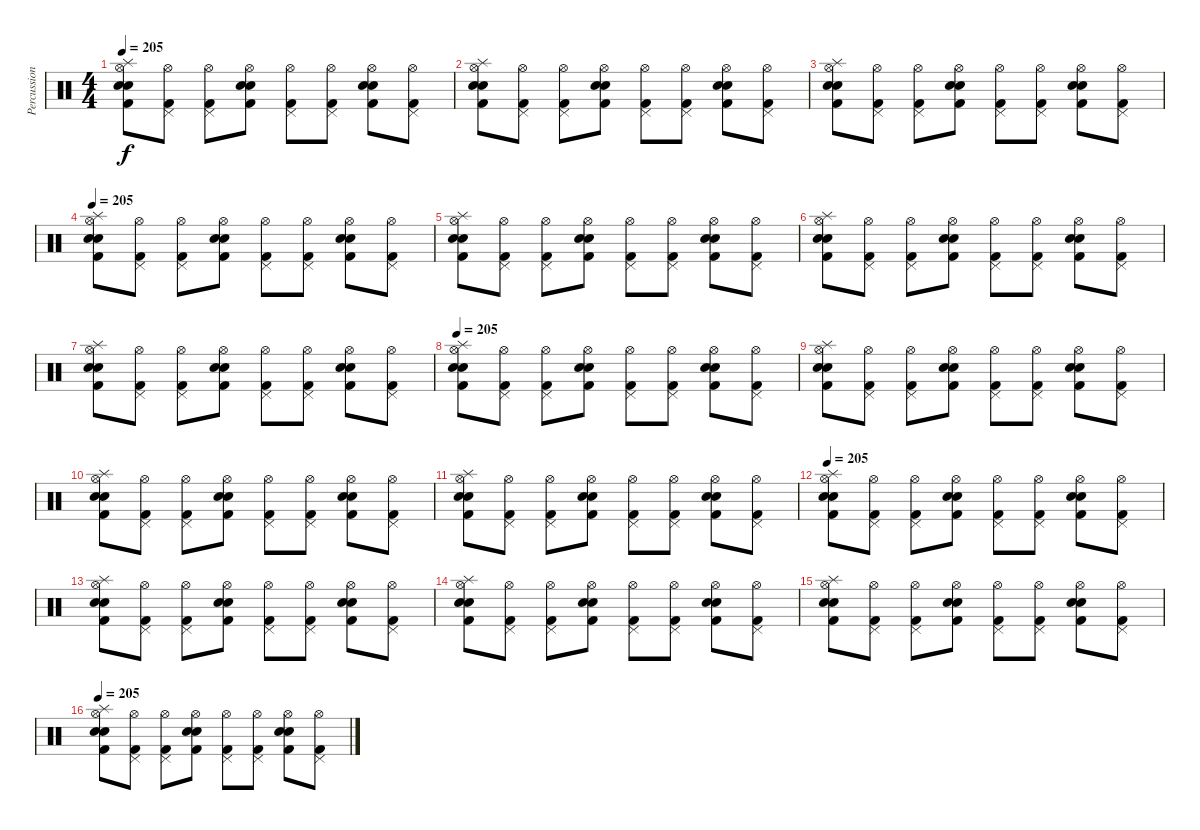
\track ("Percussions" "Percussion") {instrument percussion}
\staff {score}
\articulation defaults
\ts (4 4)
\tempo 205
\clef neutral
\ks c
("Splash (hit)" "Hi-Hat (open)" "Kick (hit) 2" "Snare (hit) 2" "Electric Snare (hit)").8{dy f} ("Hi-Hat (open)" "Pedal Hi-Hat (hit)" "Kick (hit) 2").8 ("Hi-Hat (open)" "Pedal Hi-Hat (hit)" "Kick (hit) 2").8 ("Hi-Hat (open)" "Kick (hit) 2" "Snare (hit) 2" "Electric Snare (hit)").8 ("Hi-Hat (open)" "Pedal Hi-Hat (hit)" "Kick (hit) 2").8 ("Hi-Hat (open)" "Pedal Hi-Hat (hit)" "Kick (hit) 2").8 ("Hi-Hat (open)" "Kick (hit) 2" "Snare (hit) 2" "Electric Snare (hit)").8 ("Hi-Hat (open)" "Pedal Hi-Hat (hit)" "Kick (hit) 2").8 |
("Splash (hit)" "Hi-Hat (open)" "Kick (hit) 2" "Snare (hit) 2" "Electric Snare (hit)").8 ("Hi-Hat (open)" "Pedal Hi-Hat (hit)" "Kick (hit) 2").8 ("Hi-Hat (open)" "Pedal Hi-Hat (hit)" "Kick (hit) 2").8 ("Hi-Hat (open)" "Kick (hit) 2" "Snare (hit) 2" "Electric Snare (hit)").8 ("Hi-Hat (open)" "Pedal Hi-Hat (hit)" "Kick (hit) 2").8 ("Hi-Hat (open)" "Pedal Hi-Hat (hit)" "Kick (hit) 2").8 ("Hi-Hat (open)" "Kick (hit) 2" "Snare (hit) 2" "Electric Snare (hit)").8 ("Hi-Hat (open)" "Pedal Hi-Hat (hit)" "Kick (hit) 2").8 |
("Splash (hit)" "Hi-Hat (open)" "Kick (hit) 2" "Snare (hit) 2" "Electric Snare (hit)").8 ("Hi-Hat (open)" "Pedal Hi-Hat (hit)" "Kick (hit) 2").8 ("Hi-Hat (open)" "Pedal Hi-Hat (hit)" "Kick (hit) 2").8 ("Hi-Hat (open)" "Kick (hit) 2" "Snare (hit) 2" "Electric Snare (hit)").8 ("Hi-Hat (open)" "Pedal Hi-Hat (hit)" "Kick (hit) 2").8 ("Hi-Hat (open)" "Pedal Hi-Hat (hit)" "Kick (hit) 2").8 ("Hi-Hat (open)" "Kick (hit) 2" "Snare (hit) 2" "Electric Snare (hit)").8 ("Hi-Hat (open)" "Pedal Hi-Hat (hit)" "Kick (hit) 2").8 |
\tempo 205
("Splash (hit)" "Hi-Hat (open)" "Kick (hit) 2" "Snare (hit) 2" "Electric Snare (hit)").8 ("Hi-Hat (open)" "Pedal Hi-Hat (hit)" "Kick (hit) 2").8 ("Hi-Hat (open)" "Pedal Hi-Hat (hit)" "Kick (hit) 2").8 ("Hi-Hat (open)" "Kick (hit) 2" "Snare (hit) 2" "Electric Snare (hit)").8 ("Hi-Hat (open)" "Pedal Hi-Hat (hit)" "Kick (hit) 2").8 ("Hi-Hat (open)" "Pedal Hi-Hat (hit)" "Kick (hit) 2").8 ("Hi-Hat (open)" "Kick (hit) 2" "Snare (hit) 2" "Electric Snare (hit)").8 ("Hi-Hat (open)" "Pedal Hi-Hat (hit)" "Kick (hit) 2").8 |
("Splash (hit)" "Hi-Hat (open)" "Kick (hit) 2" "Snare (hit) 2" "Electric Snare (hit)").8 ("Hi-Hat (open)" "Pedal Hi-Hat (hit)" "Kick (hit) 2").8 ("Hi-Hat (open)" "Pedal Hi-Hat (hit)" "Kick (hit) 2").8 ("Hi-Hat (open)" "Kick (hit) 2" "Snare (hit) 2" "Electric Snare (hit)").8 ("Hi-Hat (open)" "Pedal Hi-Hat (hit)" "Kick (hit) 2").8 ("Hi-Hat (open)" "Pedal Hi-Hat (hit)" "Kick (hit) 2").8 ("Hi-Hat (open)" "Kick (hit) 2" "Snare (hit) 2" "Electric Snare (hit)").8 ("Hi-Hat (open)" "Pedal Hi-Hat (hit)" "Kick (hit) 2").8 |
("Splash (hit)" "Hi-Hat (open)" "Kick (hit) 2" "Snare (hit) 2" "Electric Snare (hit)").8 ("Hi-Hat (open)" "Pedal Hi-Hat (hit)" "Kick (hit) 2").8 ("Hi-Hat (open)" "Pedal Hi-Hat (hit)" "Kick (hit) 2").8 ("Hi-Hat (open)" "Kick (hit) 2" "Snare (hit) 2" "Electric Snare (hit)").8 ("Hi-Hat (open)" "Pedal Hi-Hat (hit)" "Kick (hit) 2").8 ("Hi-Hat (open)" "Pedal Hi-Hat (hit)" "Kick (hit) 2").8 ("Hi-Hat (open)" "Kick (hit) 2" "Snare (hit) 2" "Electric Snare (hit)").8 ("Hi-Hat (open)" "Pedal Hi-Hat (hit)" "Kick (hit) 2").8 |
("Splash (hit)" "Hi-Hat (open)" "Kick (hit) 2" "Snare (hit) 2" "Electric Snare (hit)").8 ("Hi-Hat (open)" "Pedal Hi-Hat (hit)" "Kick (hit) 2").8 ("Hi-Hat (open)" "Pedal Hi-Hat (hit)" "Kick (hit) 2").8 ("Hi-Hat (open)" "Kick (hit) 2" "Snare (hit) 2" "Electric Snare (hit)").8 ("Hi-Hat (open)" "Pedal Hi-Hat (hit)" "Kick (hit) 2").8 ("Hi-Hat (open)" "Pedal Hi-Hat (hit)" "Kick (hit) 2").8 ("Hi-Hat (open)" "Kick (hit) 2" "Snare (hit) 2" "Electric Snare (hit)").8 ("Hi-Hat (open)" "Pedal Hi-Hat (hit)" "Kick (hit) 2").8 |
\tempo 205
("Splash (hit)" "Hi-Hat (open)" "Kick (hit) 2" "Snare (hit) 2" "Electric Snare (hit)").8 ("Hi-Hat (open)" "Pedal Hi-Hat (hit)" "Kick (hit) 2").8 ("Hi-Hat (open)" "Pedal Hi-Hat (hit)" "Kick (hit) 2").8 ("Hi-Hat (open)" "Kick (hit) 2" "Snare (hit) 2" "Electric Snare (hit)").8 ("Hi-Hat (open)" "Pedal Hi-Hat (hit)" "Kick (hit) 2").8 ("Hi-Hat (open)" "Pedal Hi-Hat (hit)" "Kick (hit) 2").8 ("Hi-Hat (open)" "Kick (hit) 2" "Snare (hit) 2" "Electric Snare (hit)").8 ("Hi-Hat (open)" "Pedal Hi-Hat (hit)" "Kick (hit) 2").8 |
("Splash (hit)" "Hi-Hat (open)" "Kick (hit) 2" "Snare (hit) 2" "Electric Snare (hit)").8 ("Hi-Hat (open)" "Pedal Hi-Hat (hit)" "Kick (hit) 2").8 ("Hi-Hat (open)" "Pedal Hi-Hat (hit)" "Kick (hit) 2").8 ("Hi-Hat (open)" "Kick (hit) 2" "Snare (hit) 2" "Electric Snare (hit)").8 ("Hi-Hat (open)" "Pedal Hi-Hat (hit)" "Kick (hit) 2").8 ("Hi-Hat (open)" "Pedal Hi-Hat (hit)" "Kick (hit) 2").8 ("Hi-Hat (open)" "Kick (hit) 2" "Snare (hit) 2" "Electric Snare (hit)").8 ("Hi-Hat (open)" "Pedal Hi-Hat (hit)" "Kick (hit) 2").8 |
("Splash (hit)" "Hi-Hat (open)" "Kick (hit) 2" "Snare (hit) 2" "Electric Snare (hit)").8 ("Hi-Hat (open)" "Pedal Hi-Hat (hit)" "Kick (hit) 2").8 ("Hi-Hat (open)" "Pedal Hi-Hat (hit)" "Kick (hit) 2").8 ("Hi-Hat (open)" "Kick (hit) 2" "Snare (hit) 2" "Electric Snare (hit)").8 ("Hi-Hat (open)" "Pedal Hi-Hat (hit)" "Kick (hit) 2").8 ("Hi-Hat (open)" "Pedal Hi-Hat (hit)" "Kick (hit) 2").8 ("Hi-Hat (open)" "Kick (hit) 2" "Snare (hit) 2" "Electric Snare (hit)").8 ("Hi-Hat (open)" "Pedal Hi-Hat (hit)" "Kick (hit) 2").8 |
("Splash (hit)" "Hi-Hat (open)" "Kick (hit) 2" "Snare (hit) 2" "Electric Snare (hit)").8 ("Hi-Hat (open)" "Pedal Hi-Hat (hit)" "Kick (hit) 2").8 ("Hi-Hat (open)" "Pedal Hi-Hat (hit)" "Kick (hit) 2").8 ("Hi-Hat (open)" "Kick (hit) 2" "Snare (hit) 2" "Electric Snare (hit)").8 ("Hi-Hat (open)" "Pedal Hi-Hat (hit)" "Kick (hit) 2").8 ("Hi-Hat (open)" "Pedal Hi-Hat (hit)" "Kick (hit) 2").8 ("Hi-Hat (open)" "Kick (hit) 2" "Snare (hit) 2" "Electric Snare (hit)").8 ("Hi-Hat (open)" "Pedal Hi-Hat (hit)" "Kick (hit) 2").8 |
\tempo 205
("Splash (hit)" "Hi-Hat (open)" "Kick (hit) 2" "Snare (hit) 2" "Electric Snare (hit)").8 ("Hi-Hat (open)" "Pedal Hi-Hat (hit)" "Kick (hit) 2").8 ("Hi-Hat (open)" "Pedal Hi-Hat (hit)" "Kick (hit) 2").8 ("Hi-Hat (open)" "Kick (hit) 2" "Snare (hit) 2" "Electric Snare (hit)").8 ("Hi-Hat (open)" "Pedal Hi-Hat (hit)" "Kick (hit) 2").8 ("Hi-Hat (open)" "Pedal Hi-Hat (hit)" "Kick (hit) 2").8 ("Hi-Hat (open)" "Kick (hit) 2" "Snare (hit) 2" "Electric Snare (hit)").8 ("Hi-Hat (open)" "Pedal Hi-Hat (hit)" "Kick (hit) 2").8 |
("Splash (hit)" "Hi-Hat (open)" "Kick (hit) 2" "Snare (hit) 2" "Electric Snare (hit)").8 ("Hi-Hat (open)" "Pedal Hi-Hat (hit)" "Kick (hit) 2").8 ("Hi-Hat (open)" "Pedal Hi-Hat (hit)" "Kick (hit) 2").8 ("Hi-Hat (open)" "Kick (hit) 2" "Snare (hit) 2" "Electric Snare (hit)").8 ("Hi-Hat (open)" "Pedal Hi-Hat (hit)" "Kick (hit) 2").8 ("Hi-Hat (open)" "Pedal Hi-Hat (hit)" "Kick (hit) 2").8 ("Hi-Hat (open)" "Kick (hit) 2" "Snare (hit) 2" "Electric Snare (hit)").8 ("Hi-Hat (open)" "Pedal Hi-Hat (hit)" "Kick (hit) 2").8 |
("Splash (hit)" "Hi-Hat (open)" "Kick (hit) 2" "Snare (hit) 2" "Electric Snare (hit)").8 ("Hi-Hat (open)" "Pedal Hi-Hat (hit)" "Kick (hit) 2").8 ("Hi-Hat (open)" "Pedal Hi-Hat (hit)" "Kick (hit) 2").8 ("Hi-Hat (open)" "Kick (hit) 2" "Snare (hit) 2" "Electric Snare (hit)").8 ("Hi-Hat (open)" "Pedal Hi-Hat (hit)" "Kick (hit) 2").8 ("Hi-Hat (open)" "Pedal Hi-Hat (hit)" "Kick (hit) 2").8 ("Hi-Hat (open)" "Kick (hit) 2" "Snare (hit) 2" "Electric Snare (hit)").8 ("Hi-Hat (open)" "Pedal Hi-Hat (hit)" "Kick (hit) 2").8 |
("Splash (hit)" "Hi-Hat (open)" "Kick (hit) 2" "Snare (hit) 2" "Electric Snare (hit)").8 ("Hi-Hat (open)" "Pedal Hi-Hat (hit)" "Kick (hit) 2").8 ("Hi-Hat (open)" "Pedal Hi-Hat (hit)" "Kick (hit) 2").8 ("Hi-Hat (open)" "Kick (hit) 2" "Snare (hit) 2" "Electric Snare (hit)").8 ("Hi-Hat (open)" "Pedal Hi-Hat (hit)" "Kick (hit) 2").8 ("Hi-Hat (open)" "Pedal Hi-Hat (hit)" "Kick (hit) 2").8 ("Hi-Hat (open)" "Kick (hit) 2" "Snare (hit) 2" "Electric Snare (hit)").8 ("Hi-Hat (open)" "Pedal Hi-Hat (hit)" "Kick (hit) 2").8 |
\tempo 205
("Splash (hit)" "Hi-Hat (open)" "Kick (hit) 2" "Snare (hit) 2" "Electric Snare (hit)").8 ("Hi-Hat (open)" "Pedal Hi-Hat (hit)" "Kick (hit) 2").8 ("Hi-Hat (open)" "Pedal Hi-Hat (hit)" "Kick (hit) 2").8 ("Hi-Hat (open)" "Kick (hit) 2" "Snare (hit) 2" "Electric Snare (hit)").8 ("Hi-Hat (open)" "Pedal Hi-Hat (hit)" "Kick (hit) 2").8 ("Hi-Hat (open)" "Pedal Hi-Hat (hit)" "Kick (hit) 2").8 ("Hi-Hat (open)" "Kick (hit) 2" "Snare (hit) 2" "Electric Snare (hit)").8 ("Hi-Hat (open)" "Pedal Hi-Hat (hit)" "Kick (hit) 2").8
